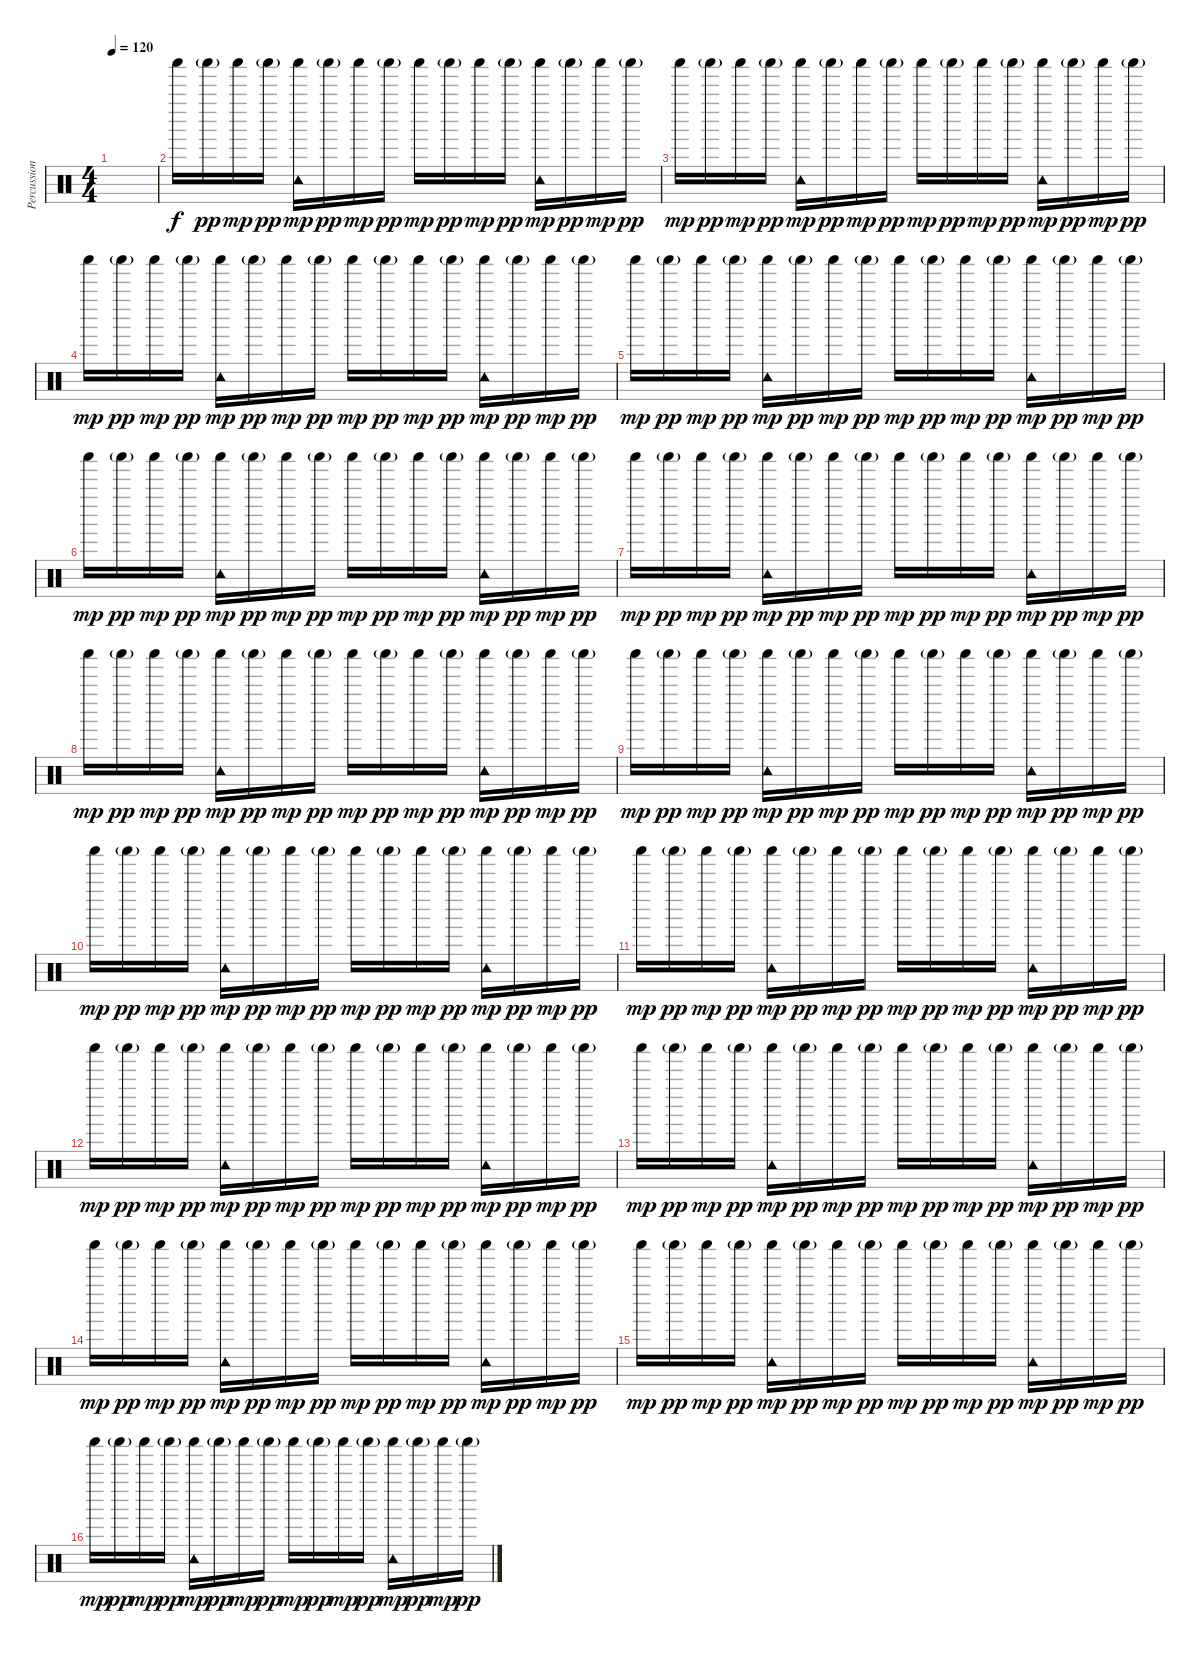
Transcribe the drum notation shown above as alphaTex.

\track ("Percussion" "Percussion") {instrument percussion}
\staff {score}
\articulation defaults
\ts (4 4)
\tempo 120
\clef neutral
\ks c
|
"Shaker (hit)".16 "Shaker (hit)"{g}.16{dy pp} "Shaker (hit)".16{dy mp} "Shaker (hit)"{g}.16{dy pp} ("Shaker (hit)" "Tambourine (hit)").16{dy mp} "Shaker (hit)"{g}.16{dy pp} "Shaker (hit)".16{dy mp} "Shaker (hit)"{g}.16{dy pp} "Shaker (hit)".16{dy mp} "Shaker (hit)"{g}.16{dy pp} "Shaker (hit)".16{dy mp} "Shaker (hit)"{g}.16{dy pp} ("Shaker (hit)" "Tambourine (hit)").16{dy mp} "Shaker (hit)"{g}.16{dy pp} "Shaker (hit)".16{dy mp} "Shaker (hit)"{g}.16{dy pp} |
"Shaker (hit)".16{dy mp} "Shaker (hit)"{g}.16{dy pp} "Shaker (hit)".16{dy mp} "Shaker (hit)"{g}.16{dy pp} ("Shaker (hit)" "Tambourine (hit)").16{dy mp} "Shaker (hit)"{g}.16{dy pp} "Shaker (hit)".16{dy mp} "Shaker (hit)"{g}.16{dy pp} "Shaker (hit)".16{dy mp} "Shaker (hit)"{g}.16{dy pp} "Shaker (hit)".16{dy mp} "Shaker (hit)"{g}.16{dy pp} ("Shaker (hit)" "Tambourine (hit)").16{dy mp} "Shaker (hit)"{g}.16{dy pp} "Shaker (hit)".16{dy mp} "Shaker (hit)"{g}.16{dy pp} |
"Shaker (hit)".16{dy mp} "Shaker (hit)"{g}.16{dy pp} "Shaker (hit)".16{dy mp} "Shaker (hit)"{g}.16{dy pp} ("Shaker (hit)" "Tambourine (hit)").16{dy mp} "Shaker (hit)"{g}.16{dy pp} "Shaker (hit)".16{dy mp} "Shaker (hit)"{g}.16{dy pp} "Shaker (hit)".16{dy mp} "Shaker (hit)"{g}.16{dy pp} "Shaker (hit)".16{dy mp} "Shaker (hit)"{g}.16{dy pp} ("Shaker (hit)" "Tambourine (hit)").16{dy mp} "Shaker (hit)"{g}.16{dy pp} "Shaker (hit)".16{dy mp} "Shaker (hit)"{g}.16{dy pp} |
"Shaker (hit)".16{dy mp} "Shaker (hit)"{g}.16{dy pp} "Shaker (hit)".16{dy mp} "Shaker (hit)"{g}.16{dy pp} ("Shaker (hit)" "Tambourine (hit)").16{dy mp} "Shaker (hit)"{g}.16{dy pp} "Shaker (hit)".16{dy mp} "Shaker (hit)"{g}.16{dy pp} "Shaker (hit)".16{dy mp} "Shaker (hit)"{g}.16{dy pp} "Shaker (hit)".16{dy mp} "Shaker (hit)"{g}.16{dy pp} ("Shaker (hit)" "Tambourine (hit)").16{dy mp} "Shaker (hit)"{g}.16{dy pp} "Shaker (hit)".16{dy mp} "Shaker (hit)"{g}.16{dy pp} |
"Shaker (hit)".16{dy mp} "Shaker (hit)"{g}.16{dy pp} "Shaker (hit)".16{dy mp} "Shaker (hit)"{g}.16{dy pp} ("Shaker (hit)" "Tambourine (hit)").16{dy mp} "Shaker (hit)"{g}.16{dy pp} "Shaker (hit)".16{dy mp} "Shaker (hit)"{g}.16{dy pp} "Shaker (hit)".16{dy mp} "Shaker (hit)"{g}.16{dy pp} "Shaker (hit)".16{dy mp} "Shaker (hit)"{g}.16{dy pp} ("Shaker (hit)" "Tambourine (hit)").16{dy mp} "Shaker (hit)"{g}.16{dy pp} "Shaker (hit)".16{dy mp} "Shaker (hit)"{g}.16{dy pp} |
"Shaker (hit)".16{dy mp} "Shaker (hit)"{g}.16{dy pp} "Shaker (hit)".16{dy mp} "Shaker (hit)"{g}.16{dy pp} ("Shaker (hit)" "Tambourine (hit)").16{dy mp} "Shaker (hit)"{g}.16{dy pp} "Shaker (hit)".16{dy mp} "Shaker (hit)"{g}.16{dy pp} "Shaker (hit)".16{dy mp} "Shaker (hit)"{g}.16{dy pp} "Shaker (hit)".16{dy mp} "Shaker (hit)"{g}.16{dy pp} ("Shaker (hit)" "Tambourine (hit)").16{dy mp} "Shaker (hit)"{g}.16{dy pp} "Shaker (hit)".16{dy mp} "Shaker (hit)"{g}.16{dy pp} |
"Shaker (hit)".16{dy mp} "Shaker (hit)"{g}.16{dy pp} "Shaker (hit)".16{dy mp} "Shaker (hit)"{g}.16{dy pp} ("Shaker (hit)" "Tambourine (hit)").16{dy mp} "Shaker (hit)"{g}.16{dy pp} "Shaker (hit)".16{dy mp} "Shaker (hit)"{g}.16{dy pp} "Shaker (hit)".16{dy mp} "Shaker (hit)"{g}.16{dy pp} "Shaker (hit)".16{dy mp} "Shaker (hit)"{g}.16{dy pp} ("Shaker (hit)" "Tambourine (hit)").16{dy mp} "Shaker (hit)"{g}.16{dy pp} "Shaker (hit)".16{dy mp} "Shaker (hit)"{g}.16{dy pp} |
"Shaker (hit)".16{dy mp} "Shaker (hit)"{g}.16{dy pp} "Shaker (hit)".16{dy mp} "Shaker (hit)"{g}.16{dy pp} ("Shaker (hit)" "Tambourine (hit)").16{dy mp} "Shaker (hit)"{g}.16{dy pp} "Shaker (hit)".16{dy mp} "Shaker (hit)"{g}.16{dy pp} "Shaker (hit)".16{dy mp} "Shaker (hit)"{g}.16{dy pp} "Shaker (hit)".16{dy mp} "Shaker (hit)"{g}.16{dy pp} ("Shaker (hit)" "Tambourine (hit)").16{dy mp} "Shaker (hit)"{g}.16{dy pp} "Shaker (hit)".16{dy mp} "Shaker (hit)"{g}.16{dy pp} |
"Shaker (hit)".16{dy mp} "Shaker (hit)"{g}.16{dy pp} "Shaker (hit)".16{dy mp} "Shaker (hit)"{g}.16{dy pp} ("Shaker (hit)" "Tambourine (hit)").16{dy mp} "Shaker (hit)"{g}.16{dy pp} "Shaker (hit)".16{dy mp} "Shaker (hit)"{g}.16{dy pp} "Shaker (hit)".16{dy mp} "Shaker (hit)"{g}.16{dy pp} "Shaker (hit)".16{dy mp} "Shaker (hit)"{g}.16{dy pp} ("Shaker (hit)" "Tambourine (hit)").16{dy mp} "Shaker (hit)"{g}.16{dy pp} "Shaker (hit)".16{dy mp} "Shaker (hit)"{g}.16{dy pp} |
"Shaker (hit)".16{dy mp} "Shaker (hit)"{g}.16{dy pp} "Shaker (hit)".16{dy mp} "Shaker (hit)"{g}.16{dy pp} ("Shaker (hit)" "Tambourine (hit)").16{dy mp} "Shaker (hit)"{g}.16{dy pp} "Shaker (hit)".16{dy mp} "Shaker (hit)"{g}.16{dy pp} "Shaker (hit)".16{dy mp} "Shaker (hit)"{g}.16{dy pp} "Shaker (hit)".16{dy mp} "Shaker (hit)"{g}.16{dy pp} ("Shaker (hit)" "Tambourine (hit)").16{dy mp} "Shaker (hit)"{g}.16{dy pp} "Shaker (hit)".16{dy mp} "Shaker (hit)"{g}.16{dy pp} |
"Shaker (hit)".16{dy mp} "Shaker (hit)"{g}.16{dy pp} "Shaker (hit)".16{dy mp} "Shaker (hit)"{g}.16{dy pp} ("Shaker (hit)" "Tambourine (hit)").16{dy mp} "Shaker (hit)"{g}.16{dy pp} "Shaker (hit)".16{dy mp} "Shaker (hit)"{g}.16{dy pp} "Shaker (hit)".16{dy mp} "Shaker (hit)"{g}.16{dy pp} "Shaker (hit)".16{dy mp} "Shaker (hit)"{g}.16{dy pp} ("Shaker (hit)" "Tambourine (hit)").16{dy mp} "Shaker (hit)"{g}.16{dy pp} "Shaker (hit)".16{dy mp} "Shaker (hit)"{g}.16{dy pp} |
"Shaker (hit)".16{dy mp} "Shaker (hit)"{g}.16{dy pp} "Shaker (hit)".16{dy mp} "Shaker (hit)"{g}.16{dy pp} ("Shaker (hit)" "Tambourine (hit)").16{dy mp} "Shaker (hit)"{g}.16{dy pp} "Shaker (hit)".16{dy mp} "Shaker (hit)"{g}.16{dy pp} "Shaker (hit)".16{dy mp} "Shaker (hit)"{g}.16{dy pp} "Shaker (hit)".16{dy mp} "Shaker (hit)"{g}.16{dy pp} ("Shaker (hit)" "Tambourine (hit)").16{dy mp} "Shaker (hit)"{g}.16{dy pp} "Shaker (hit)".16{dy mp} "Shaker (hit)"{g}.16{dy pp} |
"Shaker (hit)".16{dy mp} "Shaker (hit)"{g}.16{dy pp} "Shaker (hit)".16{dy mp} "Shaker (hit)"{g}.16{dy pp} ("Shaker (hit)" "Tambourine (hit)").16{dy mp} "Shaker (hit)"{g}.16{dy pp} "Shaker (hit)".16{dy mp} "Shaker (hit)"{g}.16{dy pp} "Shaker (hit)".16{dy mp} "Shaker (hit)"{g}.16{dy pp} "Shaker (hit)".16{dy mp} "Shaker (hit)"{g}.16{dy pp} ("Shaker (hit)" "Tambourine (hit)").16{dy mp} "Shaker (hit)"{g}.16{dy pp} "Shaker (hit)".16{dy mp} "Shaker (hit)"{g}.16{dy pp} |
"Shaker (hit)".16{dy mp} "Shaker (hit)"{g}.16{dy pp} "Shaker (hit)".16{dy mp} "Shaker (hit)"{g}.16{dy pp} ("Shaker (hit)" "Tambourine (hit)").16{dy mp} "Shaker (hit)"{g}.16{dy pp} "Shaker (hit)".16{dy mp} "Shaker (hit)"{g}.16{dy pp} "Shaker (hit)".16{dy mp} "Shaker (hit)"{g}.16{dy pp} "Shaker (hit)".16{dy mp} "Shaker (hit)"{g}.16{dy pp} ("Shaker (hit)" "Tambourine (hit)").16{dy mp} "Shaker (hit)"{g}.16{dy pp} "Shaker (hit)".16{dy mp} "Shaker (hit)"{g}.16{dy pp} |
"Shaker (hit)".16{dy mp} "Shaker (hit)"{g}.16{dy pp} "Shaker (hit)".16{dy mp} "Shaker (hit)"{g}.16{dy pp} ("Shaker (hit)" "Tambourine (hit)").16{dy mp} "Shaker (hit)"{g}.16{dy pp} "Shaker (hit)".16{dy mp} "Shaker (hit)"{g}.16{dy pp} "Shaker (hit)".16{dy mp} "Shaker (hit)"{g}.16{dy pp} "Shaker (hit)".16{dy mp} "Shaker (hit)"{g}.16{dy pp} ("Shaker (hit)" "Tambourine (hit)").16{dy mp} "Shaker (hit)"{g}.16{dy pp} "Shaker (hit)".16{dy mp} "Shaker (hit)"{g}.16{dy pp}
